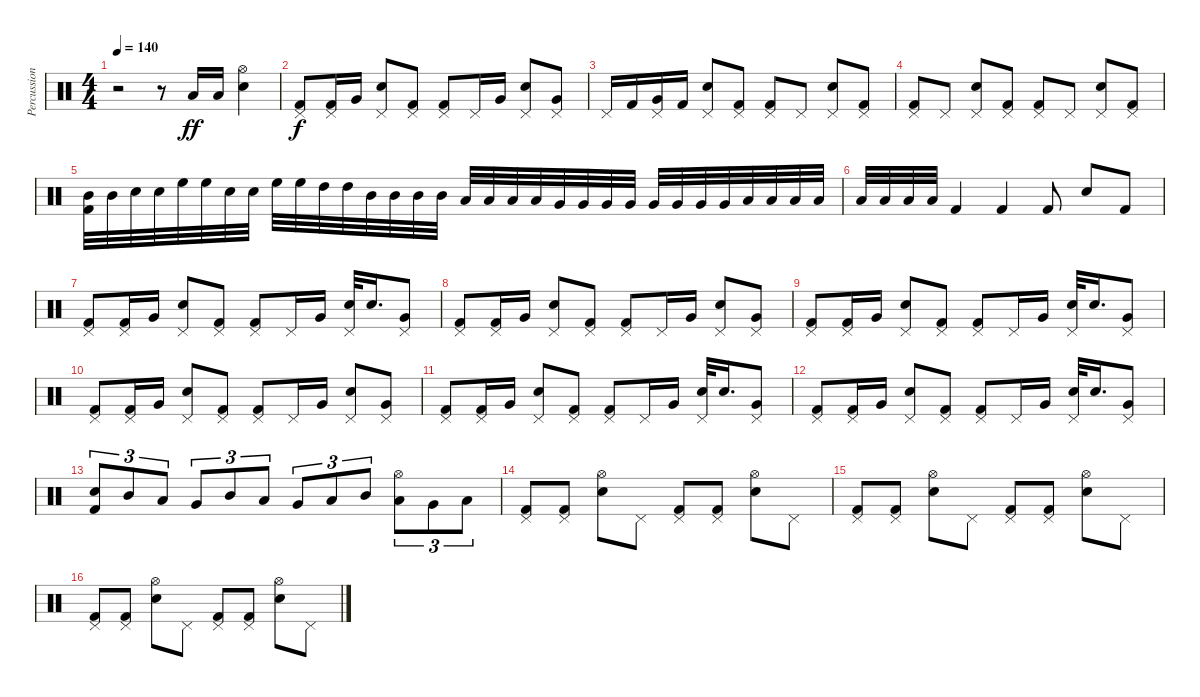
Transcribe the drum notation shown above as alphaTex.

\track ("Percussions" "Percussion") {instrument percussion}
\staff {score}
\articulation defaults
\ts (4 4)
\tempo 140
\clef neutral
\ks c
r.2{dy ff volume 16} r.8 "Low Floor Tom (hit)".16 "Low Tom (hit)".16 ("Hi-Hat (open)" "Snare (hit) 2").4 |
("Pedal Hi-Hat (hit)" "Kick (hit) 2").8{dy f} ("Pedal Hi-Hat (hit)" "Kick (hit) 2").16 "Very Low Tom (hit)".16 ("Pedal Hi-Hat (hit)" "Snare (hit) 2").8 ("Pedal Hi-Hat (hit)" "Kick (hit) 2").8 ("Pedal Hi-Hat (hit)" "Kick (hit) 2").8 "Pedal Hi-Hat (hit)".16 "Very Low Tom (hit)".16 ("Pedal Hi-Hat (hit)" "Snare (hit) 2").8 ("Pedal Hi-Hat (hit)" "Very Low Tom (hit)").8 |
"Pedal Hi-Hat (hit)".16 "Kick (hit) 2".16 ("Pedal Hi-Hat (hit)" "Very Low Tom (hit)").16 "Kick (hit) 2".16 ("Pedal Hi-Hat (hit)" "Snare (hit) 2").8 ("Pedal Hi-Hat (hit)" "Kick (hit) 2").8 ("Pedal Hi-Hat (hit)" "Kick (hit) 2").8 "Pedal Hi-Hat (hit)".8 ("Pedal Hi-Hat (hit)" "Snare (hit) 2").8 ("Pedal Hi-Hat (hit)" "Kick (hit) 2").8 |
("Pedal Hi-Hat (hit)" "Kick (hit) 2").8 "Pedal Hi-Hat (hit)".8 ("Pedal Hi-Hat (hit)" "Snare (hit) 2").8 ("Pedal Hi-Hat (hit)" "Kick (hit) 2").8 ("Pedal Hi-Hat (hit)" "Kick (hit) 2").8 "Pedal Hi-Hat (hit)".8 ("Pedal Hi-Hat (hit)" "Snare (hit) 2").8 ("Pedal Hi-Hat (hit)" "Kick (hit) 2").8 |
("Mid Tom (hit)" "Kick (hit) 2").32 "Mid Tom (hit)".32 "Snare (hit) 2".32 "Snare (hit) 2".32 "High Floor Tom (hit)".32 "High Floor Tom (hit)".32 "Snare (hit) 2".32 "Snare (hit) 2".32 "High Floor Tom (hit)".32 "High Floor Tom (hit)".32 "High Tom (hit)".32 "High Tom (hit)".32 "Mid Tom (hit)".32 "Mid Tom (hit)".32 "Mid Tom (hit)".32 "Mid Tom (hit)".32 "Low Tom (hit)".32 "Low Tom (hit)".32 "Low Tom (hit)".32 "Low Tom (hit)".32 "Very Low Tom (hit)".32 "Very Low Tom (hit)".32 "Very Low Tom (hit)".32 "Very Low Tom (hit)".32 "Very Low Tom (hit)".32 "Very Low Tom (hit)".32 "Very Low Tom (hit)".32 "Very Low Tom (hit)".32 "Low Floor Tom (hit)".32 "Low Floor Tom (hit)".32 "Low Floor Tom (hit)".32 "Low Floor Tom (hit)".32 |
"Low Floor Tom (hit)".32 "Low Floor Tom (hit)".32 "Low Floor Tom (hit)".32 "Low Floor Tom (hit)".32 "Kick (hit) 2".4 "Kick (hit) 2".4 "Kick (hit) 2".8 "Snare (hit) 2".8 "Kick (hit) 2".8 |
("Pedal Hi-Hat (hit)" "Kick (hit) 2").8 ("Pedal Hi-Hat (hit)" "Kick (hit) 2").16 "Very Low Tom (hit)".16 ("Pedal Hi-Hat (hit)" "Snare (hit) 2").8 ("Pedal Hi-Hat (hit)" "Kick (hit) 2").8 ("Pedal Hi-Hat (hit)" "Kick (hit) 2").8 "Pedal Hi-Hat (hit)".16 "Very Low Tom (hit)".16 ("Pedal Hi-Hat (hit)" "Snare (hit) 2").32 "Snare (hit) 2".16{d} ("Pedal Hi-Hat (hit)" "Very Low Tom (hit)").8 |
("Pedal Hi-Hat (hit)" "Kick (hit) 2").8 ("Pedal Hi-Hat (hit)" "Kick (hit) 2").16 "Very Low Tom (hit)".16 ("Pedal Hi-Hat (hit)" "Snare (hit) 2").8 ("Pedal Hi-Hat (hit)" "Kick (hit) 2").8 ("Pedal Hi-Hat (hit)" "Kick (hit) 2").8 "Pedal Hi-Hat (hit)".16 "Very Low Tom (hit)".16 ("Pedal Hi-Hat (hit)" "Snare (hit) 2").8 ("Pedal Hi-Hat (hit)" "Very Low Tom (hit)").8 |
("Pedal Hi-Hat (hit)" "Kick (hit) 2").8 ("Pedal Hi-Hat (hit)" "Kick (hit) 2").16 "Very Low Tom (hit)".16 ("Pedal Hi-Hat (hit)" "Snare (hit) 2").8 ("Pedal Hi-Hat (hit)" "Kick (hit) 2").8 ("Pedal Hi-Hat (hit)" "Kick (hit) 2").8 "Pedal Hi-Hat (hit)".16 "Very Low Tom (hit)".16 ("Pedal Hi-Hat (hit)" "Snare (hit) 2").32 "Snare (hit) 2".16{d} ("Pedal Hi-Hat (hit)" "Very Low Tom (hit)").8 |
("Pedal Hi-Hat (hit)" "Kick (hit) 2").8 ("Pedal Hi-Hat (hit)" "Kick (hit) 2").16 "Very Low Tom (hit)".16 ("Pedal Hi-Hat (hit)" "Snare (hit) 2").8 ("Pedal Hi-Hat (hit)" "Kick (hit) 2").8 ("Pedal Hi-Hat (hit)" "Kick (hit) 2").8 "Pedal Hi-Hat (hit)".16 "Very Low Tom (hit)".16 ("Pedal Hi-Hat (hit)" "Snare (hit) 2").8 ("Pedal Hi-Hat (hit)" "Very Low Tom (hit)").8 |
("Pedal Hi-Hat (hit)" "Kick (hit) 2").8 ("Pedal Hi-Hat (hit)" "Kick (hit) 2").16 "Very Low Tom (hit)".16 ("Pedal Hi-Hat (hit)" "Snare (hit) 2").8 ("Pedal Hi-Hat (hit)" "Kick (hit) 2").8 ("Pedal Hi-Hat (hit)" "Kick (hit) 2").8 "Pedal Hi-Hat (hit)".16 "Very Low Tom (hit)".16 ("Pedal Hi-Hat (hit)" "Snare (hit) 2").32 "Snare (hit) 2".16{d} ("Pedal Hi-Hat (hit)" "Very Low Tom (hit)").8 |
("Pedal Hi-Hat (hit)" "Kick (hit) 2").8 ("Pedal Hi-Hat (hit)" "Kick (hit) 2").16 "Very Low Tom (hit)".16 ("Pedal Hi-Hat (hit)" "Snare (hit) 2").8 ("Pedal Hi-Hat (hit)" "Kick (hit) 2").8 ("Pedal Hi-Hat (hit)" "Kick (hit) 2").8 "Pedal Hi-Hat (hit)".16 "Very Low Tom (hit)".16 ("Pedal Hi-Hat (hit)" "Snare (hit) 2").32 "Snare (hit) 2".16{d} ("Pedal Hi-Hat (hit)" "Very Low Tom (hit)").8 |
("Snare (hit) 2" "Kick (hit) 2").8{tu (3 2)} "Mid Tom (hit)".8{tu (3 2)} "Low Tom (hit)".8{tu (3 2)} "Very Low Tom (hit)".8{tu (3 2)} "Mid Tom (hit)".8{tu (3 2)} "Low Tom (hit)".8{tu (3 2)} "Very Low Tom (hit)".8{tu (3 2)} "Low Floor Tom (hit)".8{tu (3 2)} "Mid Tom (hit)".8{tu (3 2)} ("Hi-Hat (open)" "Low Tom (hit)").8{tu (3 2)} "Very Low Tom (hit)".8{tu (3 2)} "Low Floor Tom (hit)".8{tu (3 2)} |
("Pedal Hi-Hat (hit)" "Kick (hit) 2").8 ("Pedal Hi-Hat (hit)" "Kick (hit) 2").8 ("Hi-Hat (open)" "Snare (hit) 2").8 "Pedal Hi-Hat (hit)".8 ("Pedal Hi-Hat (hit)" "Kick (hit) 2").8 ("Pedal Hi-Hat (hit)" "Kick (hit) 2").8 ("Hi-Hat (open)" "Snare (hit) 2").8 "Pedal Hi-Hat (hit)".8 |
("Pedal Hi-Hat (hit)" "Kick (hit) 2").8 ("Pedal Hi-Hat (hit)" "Kick (hit) 2").8 ("Hi-Hat (open)" "Snare (hit) 2").8 "Pedal Hi-Hat (hit)".8 ("Pedal Hi-Hat (hit)" "Kick (hit) 2").8 ("Pedal Hi-Hat (hit)" "Kick (hit) 2").8 ("Hi-Hat (open)" "Snare (hit) 2").8 "Pedal Hi-Hat (hit)".8 |
("Pedal Hi-Hat (hit)" "Kick (hit) 2").8 ("Pedal Hi-Hat (hit)" "Kick (hit) 2").8 ("Hi-Hat (open)" "Snare (hit) 2").8 "Pedal Hi-Hat (hit)".8 ("Pedal Hi-Hat (hit)" "Kick (hit) 2").8 ("Pedal Hi-Hat (hit)" "Kick (hit) 2").8 ("Hi-Hat (open)" "Snare (hit) 2").8 "Pedal Hi-Hat (hit)".8
